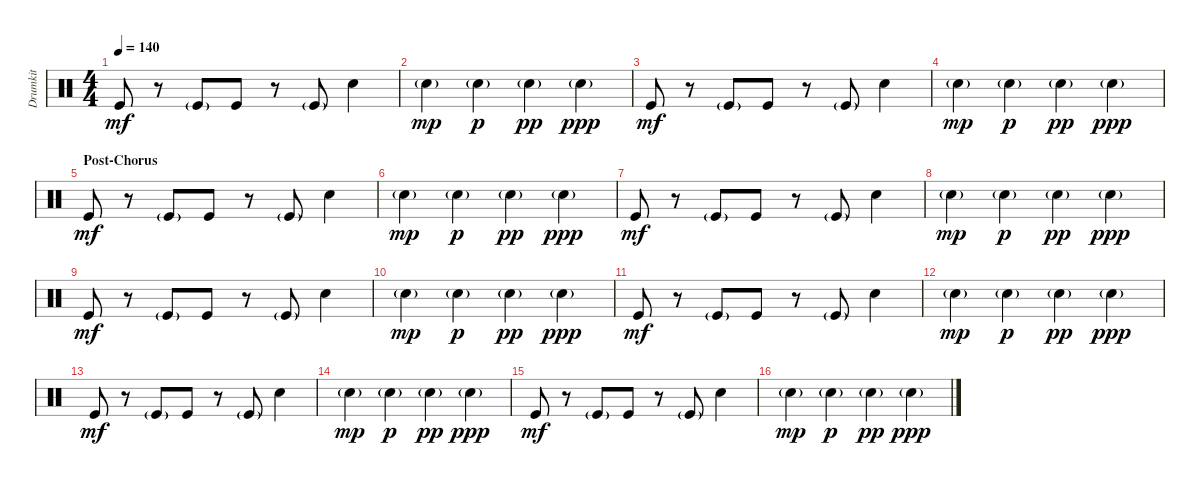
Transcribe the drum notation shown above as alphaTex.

\track ("Drumkit" "Drumkit") {instrument percussion}
\staff {score}
\articulation defaults
\ts (4 4)
\tempo 140
\clef neutral
\ks c "Kick (hit)".8{dy mf}
r.8 "Kick (hit)"{g}.8 "Kick (hit)".8 r.8 "Kick (hit)"{g}.8 "Snare (hit) 2".4 |
"Snare (hit) 2"{g}.4{dy mp} "Snare (hit) 2"{g}.4{dy p} "Snare (hit) 2"{g}.4{dy pp} "Snare (hit) 2"{g}.4{dy ppp} |
"Kick (hit)".8{dy mf} r.8 "Kick (hit)"{g}.8 "Kick (hit)".8 r.8 "Kick (hit)"{g}.8 "Snare (hit) 2".4 |
"Snare (hit) 2"{g}.4{dy mp} "Snare (hit) 2"{g}.4{dy p} "Snare (hit) 2"{g}.4{dy pp} "Snare (hit) 2"{g}.4{dy ppp} |
\section ("" "Post-Chorus")
"Kick (hit)".8{dy mf} r.8 "Kick (hit)"{g}.8 "Kick (hit)".8 r.8 "Kick (hit)"{g}.8 "Snare (hit) 2".4 |
"Snare (hit) 2"{g}.4{dy mp} "Snare (hit) 2"{g}.4{dy p} "Snare (hit) 2"{g}.4{dy pp} "Snare (hit) 2"{g}.4{dy ppp} |
"Kick (hit)".8{dy mf} r.8 "Kick (hit)"{g}.8 "Kick (hit)".8 r.8 "Kick (hit)"{g}.8 "Snare (hit) 2".4 |
"Snare (hit) 2"{g}.4{dy mp} "Snare (hit) 2"{g}.4{dy p} "Snare (hit) 2"{g}.4{dy pp} "Snare (hit) 2"{g}.4{dy ppp} |
"Kick (hit)".8{dy mf} r.8 "Kick (hit)"{g}.8 "Kick (hit)".8 r.8 "Kick (hit)"{g}.8 "Snare (hit) 2".4 |
"Snare (hit) 2"{g}.4{dy mp} "Snare (hit) 2"{g}.4{dy p} "Snare (hit) 2"{g}.4{dy pp} "Snare (hit) 2"{g}.4{dy ppp} |
"Kick (hit)".8{dy mf} r.8 "Kick (hit)"{g}.8 "Kick (hit)".8 r.8 "Kick (hit)"{g}.8 "Snare (hit) 2".4 |
"Snare (hit) 2"{g}.4{dy mp} "Snare (hit) 2"{g}.4{dy p} "Snare (hit) 2"{g}.4{dy pp} "Snare (hit) 2"{g}.4{dy ppp} |
"Kick (hit)".8{dy mf} r.8 "Kick (hit)"{g}.8 "Kick (hit)".8 r.8 "Kick (hit)"{g}.8 "Snare (hit) 2".4 |
"Snare (hit) 2"{g}.4{dy mp} "Snare (hit) 2"{g}.4{dy p} "Snare (hit) 2"{g}.4{dy pp} "Snare (hit) 2"{g}.4{dy ppp} |
"Kick (hit)".8{dy mf} r.8 "Kick (hit)"{g}.8 "Kick (hit)".8 r.8 "Kick (hit)"{g}.8 "Snare (hit) 2".4 |
"Snare (hit) 2"{g}.4{dy mp} "Snare (hit) 2"{g}.4{dy p} "Snare (hit) 2"{g}.4{dy pp} "Snare (hit) 2"{g}.4{dy ppp}
